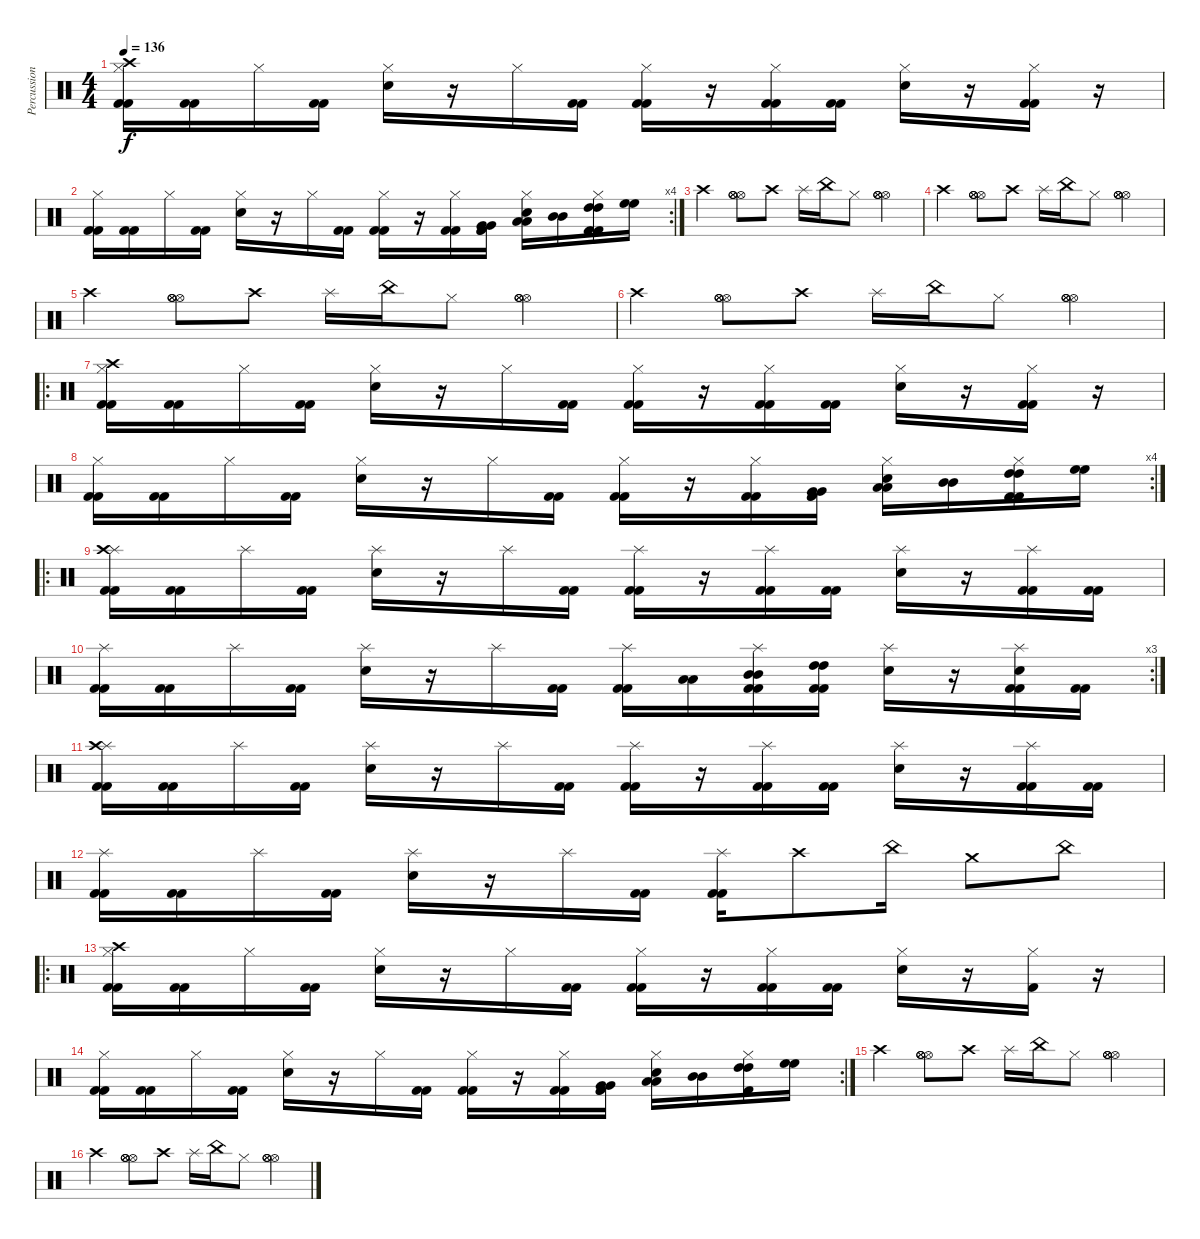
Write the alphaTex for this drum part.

\track ("Percussion" "Percussion") {instrument percussion}
\staff {score}
\articulation defaults
\ts (4 4)
\tempo 136
\clef neutral
\ks c
("Hi-Hat (closed)" "Crash high (hit)" "Kick (hit) 2" "Kick (hit) 2").16{dy f} ("Kick (hit) 2" "Kick (hit) 2").16 "Hi-Hat (closed)".16 ("Kick (hit) 2" "Kick (hit) 2").16 ("Hi-Hat (closed)" "Snare (hit) 2").16 r.16 "Hi-Hat (closed)".16 ("Kick (hit) 2" "Kick (hit) 2").16 ("Hi-Hat (closed)" "Kick (hit) 2" "Kick (hit) 2").16 r.16 ("Hi-Hat (closed)" "Kick (hit) 2" "Kick (hit) 2").16 ("Kick (hit) 2" "Kick (hit) 2").16 ("Hi-Hat (closed)" "Snare (hit) 2").16 r.16 ("Hi-Hat (closed)" "Kick (hit) 2" "Kick (hit) 2").16 r.16 |
\rc 4
("Hi-Hat (closed)" "Kick (hit) 2" "Kick (hit) 2").16 ("Kick (hit) 2" "Kick (hit) 2").16 "Hi-Hat (closed)".16 ("Kick (hit) 2" "Kick (hit) 2").16 ("Hi-Hat (closed)" "Snare (hit) 2").16 r.16 "Hi-Hat (closed)".16 ("Kick (hit) 2" "Kick (hit) 2").16 ("Hi-Hat (closed)" "Kick (hit) 2" "Kick (hit) 2").16 r.16 ("Hi-Hat (closed)" "Kick (hit) 2" "Kick (hit) 2").16 ("Very Low Tom (hit)" "Very Low Tom (hit)" "Kick (hit) 2" "Kick (hit) 2").16 ("Hi-Hat (closed)" "Low Tom (hit)" "Low Tom (hit)" "Snare (hit) 2").16 ("Mid Tom (hit)" "Mid Tom (hit)").16 ("Hi-Hat (closed)" "High Tom (hit)" "High Tom (hit)" "Kick (hit) 2" "Kick (hit) 2").16 ("High Floor Tom (hit)" "High Floor Tom (hit)").16 |
"Crash high (hit)".4 ("Hi-Hat (open)" "Hi-Hat (open)" "Hi-Hat (open)" "Hi-Hat (open)").8 "Crash high (hit)".8 "Splash (hit)".16 "China (hit)".16 "Hi-Hat (closed)".8 ("Hi-Hat (open)" "Hi-Hat (open)" "Hi-Hat (open)" "Hi-Hat (open)").4 |
"Crash high (hit)".4 ("Hi-Hat (open)" "Hi-Hat (open)" "Hi-Hat (open)" "Hi-Hat (open)").8 "Crash high (hit)".8 "Splash (hit)".16 "China (hit)".16 "Hi-Hat (closed)".8 ("Hi-Hat (open)" "Hi-Hat (open)" "Hi-Hat (open)" "Hi-Hat (open)").4 |
"Crash high (hit)".4 ("Hi-Hat (open)" "Hi-Hat (open)" "Hi-Hat (open)" "Hi-Hat (open)").8 "Crash high (hit)".8 "Splash (hit)".16 "China (hit)".16 "Hi-Hat (closed)".8 ("Hi-Hat (open)" "Hi-Hat (open)" "Hi-Hat (open)" "Hi-Hat (open)").4 |
"Crash high (hit)".4 ("Hi-Hat (open)" "Hi-Hat (open)" "Hi-Hat (open)" "Hi-Hat (open)").8 "Crash high (hit)".8 "Splash (hit)".16 "China (hit)".16 "Hi-Hat (closed)".8 ("Hi-Hat (open)" "Hi-Hat (open)" "Hi-Hat (open)" "Hi-Hat (open)").4 |
\ro
("Hi-Hat (closed)" "Crash high (hit)" "Kick (hit) 2" "Kick (hit) 2").16 ("Kick (hit) 2" "Kick (hit) 2").16 "Hi-Hat (closed)".16 ("Kick (hit) 2" "Kick (hit) 2").16 ("Hi-Hat (closed)" "Snare (hit) 2").16 r.16 "Hi-Hat (closed)".16 ("Kick (hit) 2" "Kick (hit) 2").16 ("Hi-Hat (closed)" "Kick (hit) 2" "Kick (hit) 2").16 r.16 ("Hi-Hat (closed)" "Kick (hit) 2" "Kick (hit) 2").16 ("Kick (hit) 2" "Kick (hit) 2").16 ("Hi-Hat (closed)" "Snare (hit) 2").16 r.16 ("Hi-Hat (closed)" "Kick (hit) 2" "Kick (hit) 2").16 r.16 |
\rc 4
("Hi-Hat (closed)" "Kick (hit) 2" "Kick (hit) 2").16 ("Kick (hit) 2" "Kick (hit) 2").16 "Hi-Hat (closed)".16 ("Kick (hit) 2" "Kick (hit) 2").16 ("Hi-Hat (closed)" "Snare (hit) 2").16 r.16 "Hi-Hat (closed)".16 ("Kick (hit) 2" "Kick (hit) 2").16 ("Hi-Hat (closed)" "Kick (hit) 2" "Kick (hit) 2").16 r.16 ("Hi-Hat (closed)" "Kick (hit) 2" "Kick (hit) 2").16 ("Very Low Tom (hit)" "Very Low Tom (hit)" "Kick (hit) 2" "Kick (hit) 2").16 ("Hi-Hat (closed)" "Low Tom (hit)" "Low Tom (hit)" "Snare (hit) 2").16 ("Mid Tom (hit)" "Mid Tom (hit)").16 ("Hi-Hat (closed)" "High Tom (hit)" "High Tom (hit)" "Kick (hit) 2" "Kick (hit) 2").16 ("High Floor Tom (hit)" "High Floor Tom (hit)").16 |
\ro
("Splash (hit)" "Crash high (hit)" "Kick (hit) 2" "Kick (hit) 2").16 ("Kick (hit) 2" "Kick (hit) 2").16 "Splash (hit)".16 ("Kick (hit) 2" "Kick (hit) 2").16 ("Splash (hit)" "Snare (hit) 2").16 r.16 "Splash (hit)".16 ("Kick (hit) 2" "Kick (hit) 2").16 ("Splash (hit)" "Kick (hit) 2" "Kick (hit) 2").16 r.16 ("Splash (hit)" "Kick (hit) 2" "Kick (hit) 2").16 ("Kick (hit) 2" "Kick (hit) 2").16 ("Splash (hit)" "Snare (hit) 2").16 r.16 ("Splash (hit)" "Kick (hit) 2" "Kick (hit) 2").16 ("Kick (hit) 2" "Kick (hit) 2").16 |
\rc 3
("Splash (hit)" "Kick (hit) 2" "Kick (hit) 2").16 ("Kick (hit) 2" "Kick (hit) 2").16 "Splash (hit)".16 ("Kick (hit) 2" "Kick (hit) 2").16 ("Splash (hit)" "Snare (hit) 2").16 r.16 "Splash (hit)".16 ("Kick (hit) 2" "Kick (hit) 2").16 ("Splash (hit)" "Kick (hit) 2" "Kick (hit) 2").16 ("Low Tom (hit)" "Low Tom (hit)").16 ("Splash (hit)" "Mid Tom (hit)" "Mid Tom (hit)" "Kick (hit) 2" "Kick (hit) 2").16 ("High Tom (hit)" "High Tom (hit)" "Kick (hit) 2" "Kick (hit) 2").16 ("Splash (hit)" "Snare (hit) 2").16 r.16 ("Splash (hit)" "Snare (hit) 2" "Kick (hit) 2" "Kick (hit) 2").16 ("Kick (hit) 2" "Kick (hit) 2").16 |
("Splash (hit)" "Crash high (hit)" "Kick (hit) 2" "Kick (hit) 2").16 ("Kick (hit) 2" "Kick (hit) 2").16 "Splash (hit)".16 ("Kick (hit) 2" "Kick (hit) 2").16 ("Splash (hit)" "Snare (hit) 2").16 r.16 "Splash (hit)".16 ("Kick (hit) 2" "Kick (hit) 2").16 ("Splash (hit)" "Kick (hit) 2" "Kick (hit) 2").16 r.16 ("Splash (hit)" "Kick (hit) 2" "Kick (hit) 2").16 ("Kick (hit) 2" "Kick (hit) 2").16 ("Splash (hit)" "Snare (hit) 2").16 r.16 ("Splash (hit)" "Kick (hit) 2" "Kick (hit) 2").16 ("Kick (hit) 2" "Kick (hit) 2").16 |
("Splash (hit)" "Kick (hit) 2" "Kick (hit) 2").16 ("Kick (hit) 2" "Kick (hit) 2").16 "Splash (hit)".16 ("Kick (hit) 2" "Kick (hit) 2").16 ("Splash (hit)" "Snare (hit) 2").16 r.16 "Splash (hit)".16 ("Kick (hit) 2" "Kick (hit) 2").16 ("Splash (hit)" "Kick (hit) 2" "Kick (hit) 2").16 "Crash high (hit)".8 "China (hit)".16 "Crash medium (hit)".8 "China (hit)".8 |
\ro
("Hi-Hat (closed)" "Crash high (hit)" "Kick (hit) 2" "Kick (hit) 2").16 ("Kick (hit) 2" "Kick (hit) 2").16 "Hi-Hat (closed)".16 ("Kick (hit) 2" "Kick (hit) 2").16 ("Hi-Hat (closed)" "Snare (hit) 2").16 r.16 "Hi-Hat (closed)".16 ("Kick (hit) 2" "Kick (hit) 2").16 ("Hi-Hat (closed)" "Kick (hit) 2" "Kick (hit) 2").16 r.16 ("Hi-Hat (closed)" "Kick (hit) 2" "Kick (hit) 2").16 ("Kick (hit) 2" "Kick (hit) 2").16 ("Hi-Hat (closed)" "Snare (hit) 2").16 r.16 ("Hi-Hat (closed)" "Kick (hit) 2").16 r.16 |
\rc 2
("Hi-Hat (closed)" "Kick (hit) 2" "Kick (hit) 2").16 ("Kick (hit) 2" "Kick (hit) 2").16 "Hi-Hat (closed)".16 ("Kick (hit) 2" "Kick (hit) 2").16 ("Hi-Hat (closed)" "Snare (hit) 2").16 r.16 "Hi-Hat (closed)".16 ("Kick (hit) 2" "Kick (hit) 2").16 ("Hi-Hat (closed)" "Kick (hit) 2" "Kick (hit) 2").16 r.16 ("Hi-Hat (closed)" "Kick (hit) 2" "Kick (hit) 2").16 ("Very Low Tom (hit)" "Very Low Tom (hit)" "Kick (hit) 2" "Kick (hit) 2").16 ("Hi-Hat (closed)" "Low Tom (hit)" "Low Tom (hit)" "Snare (hit) 2").16 ("Mid Tom (hit)" "Mid Tom (hit)").16 ("Hi-Hat (closed)" "High Tom (hit)" "High Tom (hit)" "Kick (hit) 2").16 ("High Floor Tom (hit)" "High Floor Tom (hit)").16 |
"Crash high (hit)".4 ("Hi-Hat (open)" "Hi-Hat (open)" "Hi-Hat (open)" "Hi-Hat (open)").8 "Crash high (hit)".8 "Splash (hit)".16 "China (hit)".16 "Hi-Hat (closed)".8 ("Hi-Hat (open)" "Hi-Hat (open)" "Hi-Hat (open)" "Hi-Hat (open)").4 |
"Crash high (hit)".4 ("Hi-Hat (open)" "Hi-Hat (open)" "Hi-Hat (open)" "Hi-Hat (open)").8 "Crash high (hit)".8 "Splash (hit)".16 "China (hit)".16 "Hi-Hat (closed)".8 ("Hi-Hat (open)" "Hi-Hat (open)" "Hi-Hat (open)" "Hi-Hat (open)").4
